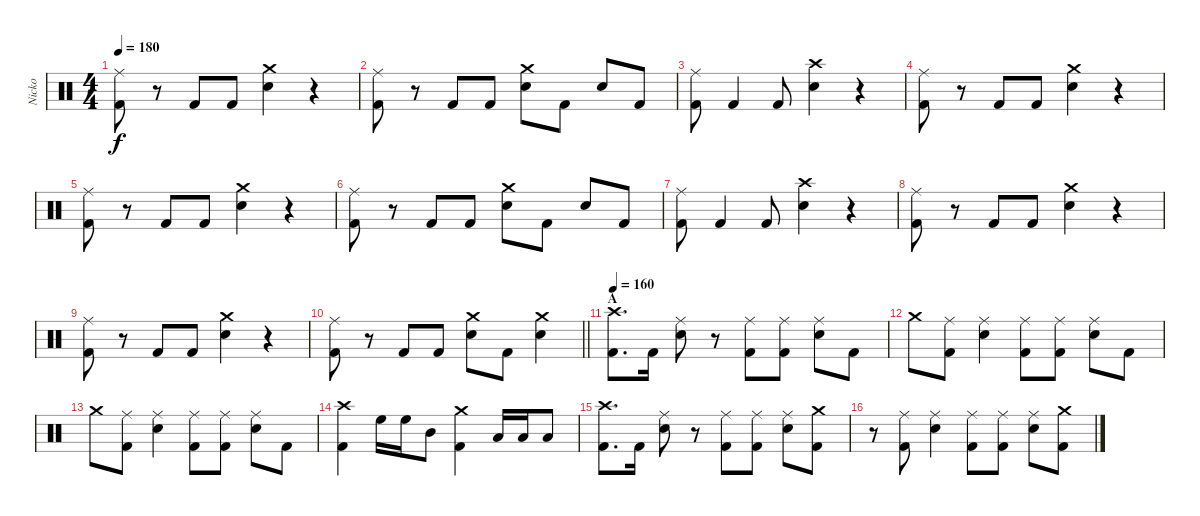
\track ("Nicko" "Nicko") {instrument percussion}
\staff {score}
\articulation defaults
\ts (4 4)
\tempo 180
\clef neutral
\ks c
("Ride (middle)" "Kick (hit) 2").8{dy f} r.8 "Kick (hit) 2".8 "Kick (hit) 2".8 ("Crash medium (hit)" "Snare (hit) 2").4 r.4 |
("Ride (middle)" "Kick (hit) 2").8 r.8 "Kick (hit) 2".8 "Kick (hit) 2".8 ("Crash medium (hit)" "Snare (hit) 2").8 "Kick (hit) 2".8 "Snare (hit) 2".8 "Kick (hit) 2".8 |
("Ride (middle)" "Kick (hit) 2").8 "Kick (hit) 2".4 "Kick (hit) 2".8 ("Crash high (hit)" "Snare (hit) 2").4 r.4 |
("Ride (middle)" "Kick (hit) 2").8 r.8 "Kick (hit) 2".8 "Kick (hit) 2".8 ("Crash medium (hit)" "Snare (hit) 2").4 r.4 |
("Ride (middle)" "Kick (hit) 2").8 r.8 "Kick (hit) 2".8 "Kick (hit) 2".8 ("Crash medium (hit)" "Snare (hit) 2").4 r.4 |
("Ride (middle)" "Kick (hit) 2").8 r.8 "Kick (hit) 2".8 "Kick (hit) 2".8 ("Crash medium (hit)" "Snare (hit) 2").8 "Kick (hit) 2".8 "Snare (hit) 2".8 "Kick (hit) 2".8 |
("Ride (middle)" "Kick (hit) 2").8 "Kick (hit) 2".4 "Kick (hit) 2".8 ("Crash high (hit)" "Snare (hit) 2").4 r.4 |
("Ride (middle)" "Kick (hit) 2").8 r.8 "Kick (hit) 2".8 "Kick (hit) 2".8 ("Crash medium (hit)" "Snare (hit) 2").4 r.4 |
("Ride (middle)" "Kick (hit) 2").8 r.8 "Kick (hit) 2".8 "Kick (hit) 2".8 ("Crash medium (hit)" "Snare (hit) 2").4 r.4 |
\barLineRight lightlight
("Ride (middle)" "Kick (hit) 2").8 r.8 "Kick (hit) 2".8 "Kick (hit) 2".8 ("Crash medium (hit)" "Snare (hit) 2").8 "Kick (hit) 2".8 ("Crash medium (hit)" "Snare (hit) 2").4 |
\section ("" "A")
\tempo 160
("Crash high (hit)" "Kick (hit) 2").8{d} "Kick (hit) 2".16 ("Ride (middle)" "Snare (hit) 2").8 r.8 ("Ride (middle)" "Kick (hit) 2").8 ("Ride (middle)" "Kick (hit) 2").8 ("Ride (middle)" "Snare (hit) 2").8 "Kick (hit) 2".8 |
"Crash medium (hit)".8 ("Ride (middle)" "Kick (hit) 2").8 ("Ride (middle)" "Snare (hit) 2").4 ("Ride (middle)" "Kick (hit) 2").8 ("Ride (middle)" "Kick (hit) 2").8 ("Ride (middle)" "Snare (hit) 2").8 "Kick (hit) 2".8 |
"Crash medium (hit)".8 ("Ride (middle)" "Kick (hit) 2").8 ("Ride (middle)" "Snare (hit) 2").4 ("Ride (middle)" "Kick (hit) 2").8 ("Ride (middle)" "Kick (hit) 2").8 ("Ride (middle)" "Snare (hit) 2").8 "Kick (hit) 2".8 |
("Crash high (hit)" "Kick (hit) 2").4 "High Floor Tom (hit)".16 "High Floor Tom (hit)".16 "Mid Tom (hit)".8 ("Crash medium (hit)" "Kick (hit) 2").4 "Low Tom (hit)".16 "Low Tom (hit)".16 "Low Floor Tom (hit)".8 |
("Crash high (hit)" "Kick (hit) 2").8{d} "Kick (hit) 2".16 ("Ride (middle)" "Snare (hit) 2").8 r.8 ("Ride (middle)" "Kick (hit) 2").8 ("Ride (middle)" "Kick (hit) 2").8 ("Ride (middle)" "Snare (hit) 2").8 ("Crash medium (hit)" "Kick (hit) 2").8 |
r.8 ("Ride (middle)" "Kick (hit) 2").8 ("Ride (middle)" "Snare (hit) 2").4 ("Ride (middle)" "Kick (hit) 2").8 ("Ride (middle)" "Kick (hit) 2").8 ("Ride (middle)" "Snare (hit) 2").8 ("Crash medium (hit)" "Kick (hit) 2").8
